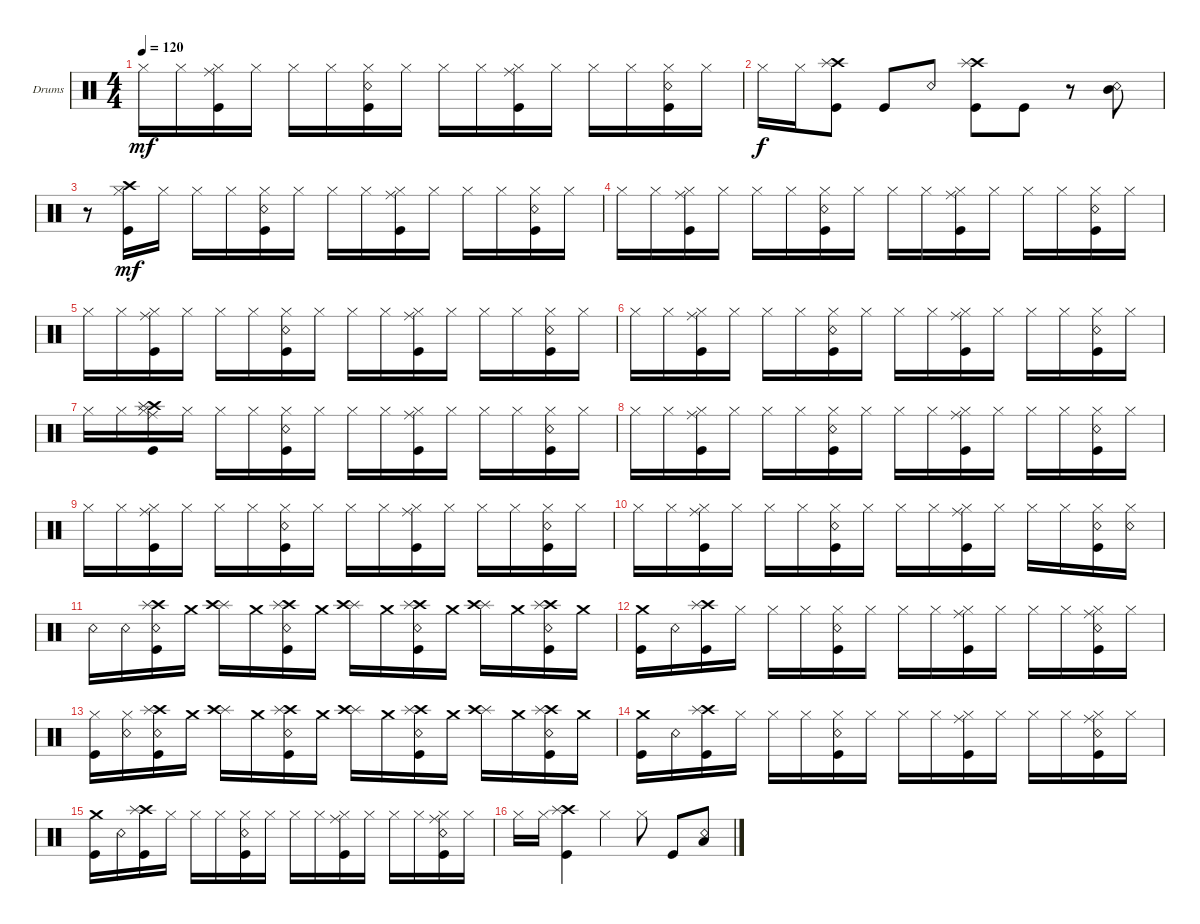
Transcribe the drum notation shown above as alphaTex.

\defaultSystemsLayout 4
\bracketExtendMode groupsimilarinstruments
\firstSystemTrackNameOrientation horizontal
\otherSystemsTrackNameOrientation horizontal
\track ("Нюта" "Drums") {instrument percussion}
\staff {score}
\articulation defaults
\ts (4 4)
\tempo 120
\clef neutral
\ks c "Hi-Hat (closed)".16{dy mf} "Hi-Hat (closed)".16
("Hi-Hat (closed)" "Ride (middle)" "Kick (hit)").16 "Hi-Hat (closed)".16 "Hi-Hat (closed)".16 "Hi-Hat (closed)".16 ("Hi-Hat (closed)" "Snare (rim shot)" "Kick (hit)").16 "Hi-Hat (closed)".16 "Hi-Hat (closed)".16 "Hi-Hat (closed)".16 ("Hi-Hat (closed)" "Ride (middle)" "Kick (hit)").16 "Hi-Hat (closed)".16 "Hi-Hat (closed)".16 "Hi-Hat (closed)".16 ("Hi-Hat (closed)" "Snare (rim shot)" "Kick (hit)").16 "Hi-Hat (closed)".16 |
"Hi-Hat (closed)".16{dy f} "Hi-Hat (closed)".16 ("Kick (hit)" "Crash high (hit)" "Splash (hit)").8 "Kick (hit)".8 "Snare (rim shot)".8 ("Kick (hit)" "Crash high (hit)" "Splash (hit)").8 "Kick (hit)".8 r.8 ("Snare (rim shot)" "Mid Tom (hit)").8 |
r.8 ("Hi-Hat (closed)" "Crash high (hit)" "Kick (hit)").16{dy mf} "Hi-Hat (closed)".16 "Hi-Hat (closed)".16 "Hi-Hat (closed)".16 ("Hi-Hat (closed)" "Snare (rim shot)" "Kick (hit)").16 "Hi-Hat (closed)".16 "Hi-Hat (closed)".16 "Hi-Hat (closed)".16 ("Hi-Hat (closed)" "Ride (middle)" "Kick (hit)").16 "Hi-Hat (closed)".16 "Hi-Hat (closed)".16 "Hi-Hat (closed)".16 ("Hi-Hat (closed)" "Snare (rim shot)" "Kick (hit)").16 "Hi-Hat (closed)".16 |
"Hi-Hat (closed)".16 "Hi-Hat (closed)".16 ("Hi-Hat (closed)" "Ride (middle)" "Kick (hit)").16 "Hi-Hat (closed)".16 "Hi-Hat (closed)".16 "Hi-Hat (closed)".16 ("Hi-Hat (closed)" "Snare (rim shot)" "Kick (hit)").16 "Hi-Hat (closed)".16 "Hi-Hat (closed)".16 "Hi-Hat (closed)".16 ("Hi-Hat (closed)" "Ride (middle)" "Kick (hit)").16 "Hi-Hat (closed)".16 "Hi-Hat (closed)".16 "Hi-Hat (closed)".16 ("Hi-Hat (closed)" "Snare (rim shot)" "Kick (hit)").16 "Hi-Hat (closed)".16 |
"Hi-Hat (closed)".16 "Hi-Hat (closed)".16 ("Hi-Hat (closed)" "Ride (middle)" "Kick (hit)").16 "Hi-Hat (closed)".16 "Hi-Hat (closed)".16 "Hi-Hat (closed)".16 ("Hi-Hat (closed)" "Snare (rim shot)" "Kick (hit)").16 "Hi-Hat (closed)".16 "Hi-Hat (closed)".16 "Hi-Hat (closed)".16 ("Hi-Hat (closed)" "Ride (middle)" "Kick (hit)").16 "Hi-Hat (closed)".16 "Hi-Hat (closed)".16 "Hi-Hat (closed)".16 ("Hi-Hat (closed)" "Snare (rim shot)" "Kick (hit)").16 "Hi-Hat (closed)".16 |
"Hi-Hat (closed)".16 "Hi-Hat (closed)".16 ("Hi-Hat (closed)" "Ride (middle)" "Kick (hit)").16 "Hi-Hat (closed)".16 "Hi-Hat (closed)".16 "Hi-Hat (closed)".16 ("Hi-Hat (closed)" "Snare (rim shot)" "Kick (hit)").16 "Hi-Hat (closed)".16 "Hi-Hat (closed)".16 "Hi-Hat (closed)".16 ("Hi-Hat (closed)" "Ride (middle)" "Kick (hit)").16 "Hi-Hat (closed)".16 "Hi-Hat (closed)".16 "Hi-Hat (closed)".16 ("Hi-Hat (closed)" "Snare (rim shot)" "Kick (hit)").16 "Hi-Hat (closed)".16 |
"Hi-Hat (closed)".16 "Hi-Hat (closed)".16 ("Hi-Hat (closed)" "Ride (middle)" "Kick (hit)" "Crash high (hit)" "Splash (hit)").16 "Hi-Hat (closed)".16 "Hi-Hat (closed)".16 "Hi-Hat (closed)".16 ("Hi-Hat (closed)" "Snare (rim shot)" "Kick (hit)").16 "Hi-Hat (closed)".16 "Hi-Hat (closed)".16 "Hi-Hat (closed)".16 ("Hi-Hat (closed)" "Ride (middle)" "Kick (hit)").16 "Hi-Hat (closed)".16 "Hi-Hat (closed)".16 "Hi-Hat (closed)".16 ("Hi-Hat (closed)" "Snare (rim shot)" "Kick (hit)").16 "Hi-Hat (closed)".16 |
"Hi-Hat (closed)".16 "Hi-Hat (closed)".16 ("Hi-Hat (closed)" "Ride (middle)" "Kick (hit)").16 "Hi-Hat (closed)".16 "Hi-Hat (closed)".16 "Hi-Hat (closed)".16 ("Hi-Hat (closed)" "Snare (rim shot)" "Kick (hit)").16 "Hi-Hat (closed)".16 "Hi-Hat (closed)".16 "Hi-Hat (closed)".16 ("Hi-Hat (closed)" "Ride (middle)" "Kick (hit)").16 "Hi-Hat (closed)".16 "Hi-Hat (closed)".16 "Hi-Hat (closed)".16 ("Hi-Hat (closed)" "Snare (rim shot)" "Kick (hit)").16 "Hi-Hat (closed)".16 |
"Hi-Hat (closed)".16 "Hi-Hat (closed)".16 ("Hi-Hat (closed)" "Ride (middle)" "Kick (hit)").16 "Hi-Hat (closed)".16 "Hi-Hat (closed)".16 "Hi-Hat (closed)".16 ("Hi-Hat (closed)" "Snare (rim shot)" "Kick (hit)").16 "Hi-Hat (closed)".16 "Hi-Hat (closed)".16 "Hi-Hat (closed)".16 ("Hi-Hat (closed)" "Ride (middle)" "Kick (hit)").16 "Hi-Hat (closed)".16 "Hi-Hat (closed)".16 "Hi-Hat (closed)".16 ("Hi-Hat (closed)" "Snare (rim shot)" "Kick (hit)").16 "Hi-Hat (closed)".16 |
"Hi-Hat (closed)".16 "Hi-Hat (closed)".16 ("Hi-Hat (closed)" "Ride (middle)" "Kick (hit)").16 "Hi-Hat (closed)".16 "Hi-Hat (closed)".16 "Hi-Hat (closed)".16 ("Hi-Hat (closed)" "Snare (rim shot)" "Kick (hit)").16 "Hi-Hat (closed)".16 "Hi-Hat (closed)".16 "Hi-Hat (closed)".16 ("Hi-Hat (closed)" "Ride (middle)" "Kick (hit)").16 "Hi-Hat (closed)".16 "Hi-Hat (closed)".16 "Hi-Hat (closed)".16 ("Hi-Hat (closed)" "Snare (rim shot)" "Kick (hit)").16 ("Hi-Hat (closed)" "Snare (rim shot)").16 |
"Snare (rim shot)".16 "Snare (rim shot)".16 ("Kick (hit)" "Crash high (hit)" "Splash (hit)" "Snare (rim shot)").16 "Crash medium (hit)".16 ("Splash (hit)" "Crash high (hit)").16 "Crash medium (hit)".16 ("Crash high (hit)" "Splash (hit)" "Kick (hit)" "Snare (rim shot)").16 "Crash medium (hit)".16 ("Splash (hit)" "Crash high (hit)").16 "Crash medium (hit)".16 ("Crash high (hit)" "Splash (hit)" "Kick (hit)" "Snare (rim shot)").16 "Crash medium (hit)".16 ("Splash (hit)" "Crash high (hit)").16 "Crash medium (hit)".16 ("Crash high (hit)" "Splash (hit)" "Kick (hit)" "Snare (rim shot)").16 "Crash medium (hit)".16 |
("Kick (hit)" "Crash medium (hit)").16 "Snare (rim shot)".16 ("Crash high (hit)" "Splash (hit)" "Kick (hit)").16 "Hi-Hat (closed)".16 "Hi-Hat (closed)".16 "Hi-Hat (closed)".16 ("Hi-Hat (closed)" "Snare (rim shot)" "Kick (hit)").16 "Hi-Hat (closed)".16 "Hi-Hat (closed)".16 "Hi-Hat (closed)".16 ("Hi-Hat (closed)" "Ride (middle)" "Kick (hit)").16 "Hi-Hat (closed)".16 "Hi-Hat (closed)".16 "Hi-Hat (closed)".16 ("Hi-Hat (closed)" "Ride (middle)" "Kick (hit)" "Snare (rim shot)").16 "Hi-Hat (closed)".16 |
("Hi-Hat (closed)" "Kick (hit)").16 ("Hi-Hat (closed)" "Snare (rim shot)").16 ("Kick (hit)" "Crash high (hit)" "Splash (hit)" "Snare (rim shot)").16 "Crash medium (hit)".16 ("Splash (hit)" "Crash high (hit)").16 "Crash medium (hit)".16 ("Crash high (hit)" "Splash (hit)" "Kick (hit)" "Snare (rim shot)").16 "Crash medium (hit)".16 ("Splash (hit)" "Crash high (hit)").16 "Crash medium (hit)".16 ("Crash high (hit)" "Splash (hit)" "Kick (hit)" "Snare (rim shot)").16 "Crash medium (hit)".16 ("Splash (hit)" "Crash high (hit)").16 "Crash medium (hit)".16 ("Crash high (hit)" "Splash (hit)" "Kick (hit)" "Snare (rim shot)").16 "Crash medium (hit)".16 |
("Kick (hit)" "Crash medium (hit)").16 "Snare (rim shot)".16 ("Crash high (hit)" "Splash (hit)" "Kick (hit)").16 "Hi-Hat (closed)".16 "Hi-Hat (closed)".16 "Hi-Hat (closed)".16 ("Hi-Hat (closed)" "Snare (rim shot)" "Kick (hit)").16 "Hi-Hat (closed)".16 "Hi-Hat (closed)".16 "Hi-Hat (closed)".16 ("Hi-Hat (closed)" "Ride (middle)" "Kick (hit)").16 "Hi-Hat (closed)".16 "Hi-Hat (closed)".16 "Hi-Hat (closed)".16 ("Hi-Hat (closed)" "Ride (middle)" "Kick (hit)" "Snare (rim shot)").16 "Hi-Hat (closed)".16 |
("Kick (hit)" "Crash medium (hit)").16 "Snare (rim shot)".16 ("Crash high (hit)" "Splash (hit)" "Kick (hit)").16 "Hi-Hat (closed)".16 "Hi-Hat (closed)".16 "Hi-Hat (closed)".16 ("Hi-Hat (closed)" "Snare (rim shot)" "Kick (hit)").16 "Hi-Hat (closed)".16 "Hi-Hat (closed)".16 "Hi-Hat (closed)".16 ("Hi-Hat (closed)" "Ride (middle)" "Kick (hit)").16 "Hi-Hat (closed)".16 "Hi-Hat (closed)".16 "Hi-Hat (closed)".16 ("Hi-Hat (closed)" "Ride (middle)" "Kick (hit)" "Snare (rim shot)").16 "Hi-Hat (closed)".16 |
"Hi-Hat (closed)".16 "Hi-Hat (closed)".16 ("Crash high (hit)" "Splash (hit)" "Kick (hit)").4 "Hi-Hat (closed)".4 "Hi-Hat (closed)".8 "Kick (hit)".8 ("Snare (rim shot)" "Low Tom (hit)").8
